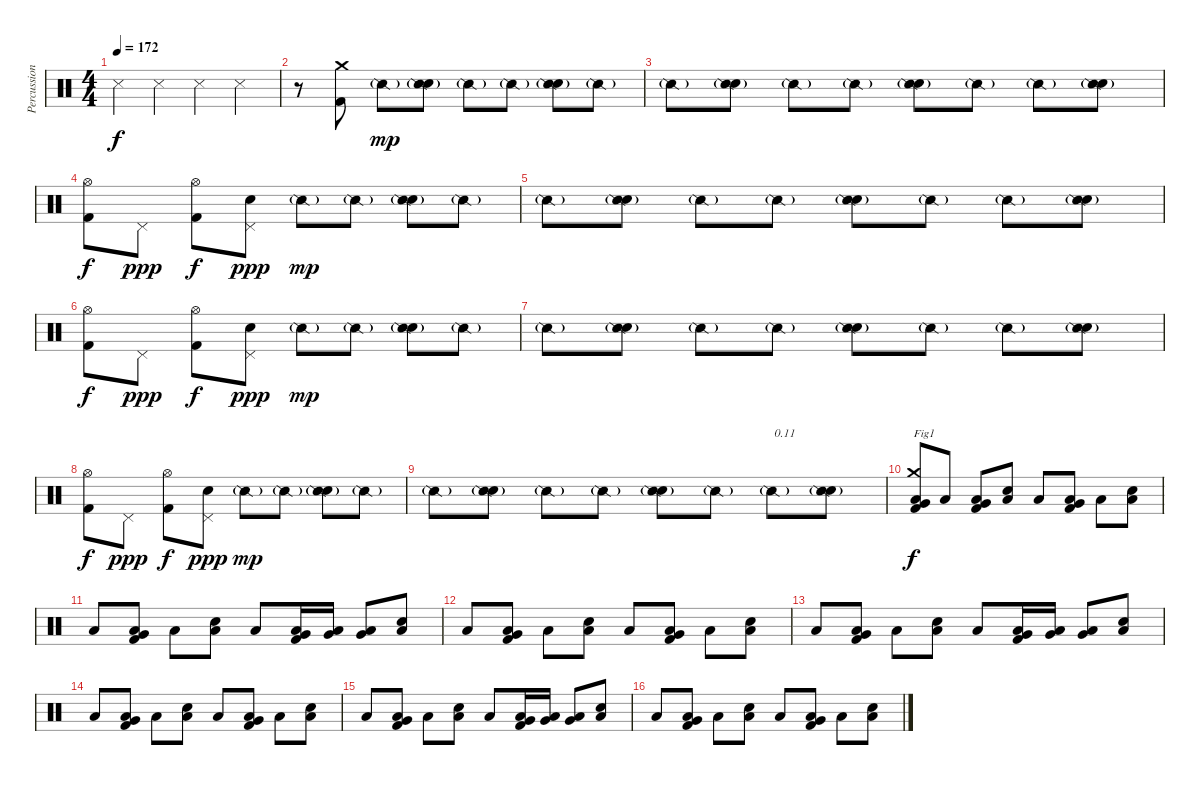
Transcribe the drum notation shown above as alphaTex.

\track ("Percussions" "Percussion") {instrument percussion}
\staff {score}
\articulation defaults
\ts (4 4)
\tempo 172
\clef neutral
\ks c "Metronome (hit)".4{dy f} "Metronome (hit)".4 "Metronome (hit)".4 "Metronome (hit)".4
|
r.8 ("Kick (hit) 2" "Crash medium (hit)").8 "Snare (side stick) 2"{g}.8{dy mp} ("Electric Snare (hit)" "Snare (side stick) 2"{g}).8 "Snare (side stick) 2"{g}.8 "Snare (side stick) 2"{g}.8 ("Electric Snare (hit)" "Snare (side stick) 2"{g}).8 "Snare (side stick) 2"{g}.8 |
"Snare (side stick) 2"{g}.8 ("Electric Snare (hit)" "Snare (side stick) 2"{g}).8 "Snare (side stick) 2"{g}.8 "Snare (side stick) 2"{g}.8 ("Electric Snare (hit)" "Snare (side stick) 2"{g}).8 "Snare (side stick) 2"{g}.8 "Snare (side stick) 2"{g}.8 ("Electric Snare (hit)" "Snare (side stick) 2"{g}).8 |
("Kick (hit) 2" "Hi-Hat (open)").8{dy f} "Pedal Hi-Hat (hit)".8{dy ppp} ("Kick (hit) 2" "Hi-Hat (open)").8{dy f} ("Electric Snare (hit)" "Pedal Hi-Hat (hit)").8{dy ppp} "Snare (side stick) 2"{g}.8{dy mp} "Snare (side stick) 2"{g}.8 ("Electric Snare (hit)" "Snare (side stick) 2"{g}).8 "Snare (side stick) 2"{g}.8 |
"Snare (side stick) 2"{g}.8 ("Electric Snare (hit)" "Snare (side stick) 2"{g}).8 "Snare (side stick) 2"{g}.8 "Snare (side stick) 2"{g}.8 ("Electric Snare (hit)" "Snare (side stick) 2"{g}).8 "Snare (side stick) 2"{g}.8 "Snare (side stick) 2"{g}.8 ("Electric Snare (hit)" "Snare (side stick) 2"{g}).8 |
("Kick (hit) 2" "Hi-Hat (open)").8{dy f} "Pedal Hi-Hat (hit)".8{dy ppp} ("Kick (hit) 2" "Hi-Hat (open)").8{dy f} ("Electric Snare (hit)" "Pedal Hi-Hat (hit)").8{dy ppp} "Snare (side stick) 2"{g}.8{dy mp} "Snare (side stick) 2"{g}.8 ("Electric Snare (hit)" "Snare (side stick) 2"{g}).8 "Snare (side stick) 2"{g}.8 |
"Snare (side stick) 2"{g}.8 ("Electric Snare (hit)" "Snare (side stick) 2"{g}).8 "Snare (side stick) 2"{g}.8 "Snare (side stick) 2"{g}.8 ("Electric Snare (hit)" "Snare (side stick) 2"{g}).8 "Snare (side stick) 2"{g}.8 "Snare (side stick) 2"{g}.8 ("Electric Snare (hit)" "Snare (side stick) 2"{g}).8 |
("Kick (hit) 2" "Hi-Hat (open)").8{dy f} "Pedal Hi-Hat (hit)".8{dy ppp} ("Kick (hit) 2" "Hi-Hat (open)").8{dy f} ("Electric Snare (hit)" "Pedal Hi-Hat (hit)").8{dy ppp} "Snare (side stick) 2"{g}.8{dy mp} "Snare (side stick) 2"{g}.8 ("Electric Snare (hit)" "Snare (side stick) 2"{g}).8 "Snare (side stick) 2"{g}.8 |
"Snare (side stick) 2"{g}.8 ("Electric Snare (hit)" "Snare (side stick) 2"{g}).8 "Snare (side stick) 2"{g}.8 "Snare (side stick) 2"{g}.8 ("Electric Snare (hit)" "Snare (side stick) 2"{g}).8 "Snare (side stick) 2"{g}.8 "Snare (side stick) 2"{g}.8{txt "0.11"} ("Electric Snare (hit)" "Snare (side stick) 2"{g}).8 |
("Kick (hit) 2" "Low Floor Tom (hit)" "Very Low Tom (hit)" "Crash medium (hit)").8{txt "Fig1" dy f} "Low Floor Tom (hit)".8 ("Kick (hit) 2" "Low Floor Tom (hit)" "Very Low Tom (hit)").8 ("Electric Snare (hit)" "Low Floor Tom (hit)").8 "Low Floor Tom (hit)".8 ("Kick (hit) 2" "Low Floor Tom (hit)" "Very Low Tom (hit)").8 "Low Floor Tom (hit)".8 ("Electric Snare (hit)" "Low Floor Tom (hit)").8 |
"Low Floor Tom (hit)".8 ("Kick (hit) 2" "Low Floor Tom (hit)" "Very Low Tom (hit)").8 "Low Floor Tom (hit)".8 ("Electric Snare (hit)" "Low Floor Tom (hit)").8 "Low Floor Tom (hit)".8 ("Kick (hit) 2" "Low Floor Tom (hit)" "Very Low Tom (hit)").16 ("Low Floor Tom (hit)" "Very Low Tom (hit)").16 ("Low Floor Tom (hit)" "Very Low Tom (hit)").8 ("Electric Snare (hit)" "Low Floor Tom (hit)").8 |
"Low Floor Tom (hit)".8 ("Kick (hit) 2" "Low Floor Tom (hit)" "Very Low Tom (hit)").8 "Low Floor Tom (hit)".8 ("Electric Snare (hit)" "Low Floor Tom (hit)").8 "Low Floor Tom (hit)".8 ("Kick (hit) 2" "Low Floor Tom (hit)" "Very Low Tom (hit)").8 "Low Floor Tom (hit)".8 ("Electric Snare (hit)" "Low Floor Tom (hit)").8 |
"Low Floor Tom (hit)".8 ("Kick (hit) 2" "Low Floor Tom (hit)" "Very Low Tom (hit)").8 "Low Floor Tom (hit)".8 ("Electric Snare (hit)" "Low Floor Tom (hit)").8 "Low Floor Tom (hit)".8 ("Kick (hit) 2" "Low Floor Tom (hit)" "Very Low Tom (hit)").16 ("Low Floor Tom (hit)" "Very Low Tom (hit)").16 ("Low Floor Tom (hit)" "Very Low Tom (hit)").8 ("Electric Snare (hit)" "Low Floor Tom (hit)").8 |
"Low Floor Tom (hit)".8 ("Kick (hit) 2" "Low Floor Tom (hit)" "Very Low Tom (hit)").8 "Low Floor Tom (hit)".8 ("Electric Snare (hit)" "Low Floor Tom (hit)").8 "Low Floor Tom (hit)".8 ("Kick (hit) 2" "Low Floor Tom (hit)" "Very Low Tom (hit)").8 "Low Floor Tom (hit)".8 ("Electric Snare (hit)" "Low Floor Tom (hit)").8 |
"Low Floor Tom (hit)".8 ("Kick (hit) 2" "Low Floor Tom (hit)" "Very Low Tom (hit)").8 "Low Floor Tom (hit)".8 ("Electric Snare (hit)" "Low Floor Tom (hit)").8 "Low Floor Tom (hit)".8 ("Kick (hit) 2" "Low Floor Tom (hit)" "Very Low Tom (hit)").16 ("Low Floor Tom (hit)" "Very Low Tom (hit)").16 ("Low Floor Tom (hit)" "Very Low Tom (hit)").8 ("Electric Snare (hit)" "Low Floor Tom (hit)").8 |
"Low Floor Tom (hit)".8 ("Kick (hit) 2" "Low Floor Tom (hit)" "Very Low Tom (hit)").8 "Low Floor Tom (hit)".8 ("Electric Snare (hit)" "Low Floor Tom (hit)").8 "Low Floor Tom (hit)".8 ("Kick (hit) 2" "Low Floor Tom (hit)" "Very Low Tom (hit)").8 "Low Floor Tom (hit)".8 ("Electric Snare (hit)" "Low Floor Tom (hit)").8
